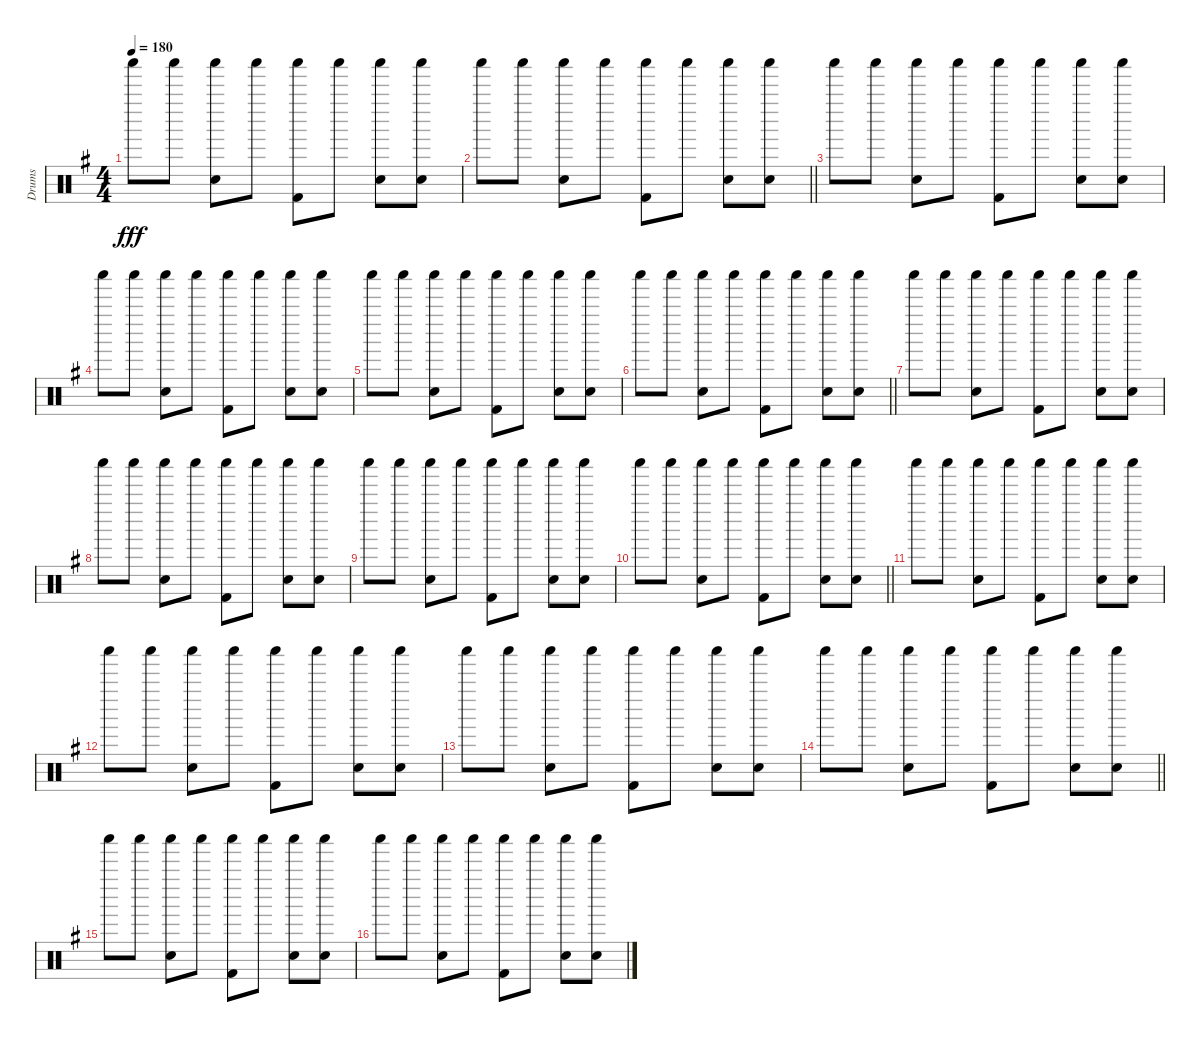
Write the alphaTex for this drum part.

\track ("Drums" "Drums") {instrument percussion}
\staff {score}
\articulation defaults
\ts (4 4)
\tempo 180
\clef neutral
\ks eminor "Shaker (hit)".8{dy fff} "Shaker (hit)".8
("Shaker (hit)" "Snare (hit) 2").8 "Shaker (hit)".8 ("Shaker (hit)" "Kick (hit) 2").8 "Shaker (hit)".8 ("Shaker (hit)" "Snare (hit) 2").8 ("Shaker (hit)" "Snare (hit) 2").8 |
\barLineRight lightlight "Shaker (hit)".8 "Shaker (hit)".8
("Shaker (hit)" "Snare (hit) 2").8 "Shaker (hit)".8 ("Shaker (hit)" "Kick (hit) 2").8 "Shaker (hit)".8 ("Shaker (hit)" "Snare (hit) 2").8 ("Shaker (hit)" "Snare (hit) 2").8 |
"Shaker (hit)".8 "Shaker (hit)".8 ("Shaker (hit)" "Snare (hit) 2").8 "Shaker (hit)".8 ("Shaker (hit)" "Kick (hit) 2").8 "Shaker (hit)".8 ("Shaker (hit)" "Snare (hit) 2").8 ("Shaker (hit)" "Snare (hit) 2").8 |
"Shaker (hit)".8 "Shaker (hit)".8 ("Shaker (hit)" "Snare (hit) 2").8 "Shaker (hit)".8 ("Shaker (hit)" "Kick (hit) 2").8 "Shaker (hit)".8 ("Shaker (hit)" "Snare (hit) 2").8 ("Shaker (hit)" "Snare (hit) 2").8 |
"Shaker (hit)".8 "Shaker (hit)".8 ("Shaker (hit)" "Snare (hit) 2").8 "Shaker (hit)".8 ("Shaker (hit)" "Kick (hit) 2").8 "Shaker (hit)".8 ("Shaker (hit)" "Snare (hit) 2").8 ("Shaker (hit)" "Snare (hit) 2").8 |
\barLineRight lightlight "Shaker (hit)".8 "Shaker (hit)".8
("Shaker (hit)" "Snare (hit) 2").8 "Shaker (hit)".8 ("Shaker (hit)" "Kick (hit) 2").8 "Shaker (hit)".8 ("Shaker (hit)" "Snare (hit) 2").8 ("Shaker (hit)" "Snare (hit) 2").8 |
"Shaker (hit)".8 "Shaker (hit)".8 ("Shaker (hit)" "Snare (hit) 2").8 "Shaker (hit)".8 ("Shaker (hit)" "Kick (hit) 2").8 "Shaker (hit)".8 ("Shaker (hit)" "Snare (hit) 2").8 ("Shaker (hit)" "Snare (hit) 2").8 |
"Shaker (hit)".8 "Shaker (hit)".8 ("Shaker (hit)" "Snare (hit) 2").8 "Shaker (hit)".8 ("Shaker (hit)" "Kick (hit) 2").8 "Shaker (hit)".8 ("Shaker (hit)" "Snare (hit) 2").8 ("Shaker (hit)" "Snare (hit) 2").8 |
"Shaker (hit)".8 "Shaker (hit)".8 ("Shaker (hit)" "Snare (hit) 2").8 "Shaker (hit)".8 ("Shaker (hit)" "Kick (hit) 2").8 "Shaker (hit)".8 ("Shaker (hit)" "Snare (hit) 2").8 ("Shaker (hit)" "Snare (hit) 2").8 |
\barLineRight lightlight "Shaker (hit)".8 "Shaker (hit)".8
("Shaker (hit)" "Snare (hit) 2").8 "Shaker (hit)".8 ("Shaker (hit)" "Kick (hit) 2").8 "Shaker (hit)".8 ("Shaker (hit)" "Snare (hit) 2").8 ("Shaker (hit)" "Snare (hit) 2").8 |
"Shaker (hit)".8 "Shaker (hit)".8 ("Shaker (hit)" "Snare (hit) 2").8 "Shaker (hit)".8 ("Shaker (hit)" "Kick (hit) 2").8 "Shaker (hit)".8 ("Shaker (hit)" "Snare (hit) 2").8 ("Shaker (hit)" "Snare (hit) 2").8 |
"Shaker (hit)".8 "Shaker (hit)".8 ("Shaker (hit)" "Snare (hit) 2").8 "Shaker (hit)".8 ("Shaker (hit)" "Kick (hit) 2").8 "Shaker (hit)".8 ("Shaker (hit)" "Snare (hit) 2").8 ("Shaker (hit)" "Snare (hit) 2").8 |
"Shaker (hit)".8 "Shaker (hit)".8 ("Shaker (hit)" "Snare (hit) 2").8 "Shaker (hit)".8 ("Shaker (hit)" "Kick (hit) 2").8 "Shaker (hit)".8 ("Shaker (hit)" "Snare (hit) 2").8 ("Shaker (hit)" "Snare (hit) 2").8 |
\barLineRight lightlight "Shaker (hit)".8 "Shaker (hit)".8
("Shaker (hit)" "Snare (hit) 2").8 "Shaker (hit)".8 ("Shaker (hit)" "Kick (hit) 2").8 "Shaker (hit)".8 ("Shaker (hit)" "Snare (hit) 2").8 ("Shaker (hit)" "Snare (hit) 2").8 |
"Shaker (hit)".8 "Shaker (hit)".8 ("Shaker (hit)" "Snare (hit) 2").8 "Shaker (hit)".8 ("Shaker (hit)" "Kick (hit) 2").8 "Shaker (hit)".8 ("Shaker (hit)" "Snare (hit) 2").8 ("Shaker (hit)" "Snare (hit) 2").8 |
"Shaker (hit)".8 "Shaker (hit)".8 ("Shaker (hit)" "Snare (hit) 2").8 "Shaker (hit)".8 ("Shaker (hit)" "Kick (hit) 2").8 "Shaker (hit)".8 ("Shaker (hit)" "Snare (hit) 2").8 ("Shaker (hit)" "Snare (hit) 2").8
